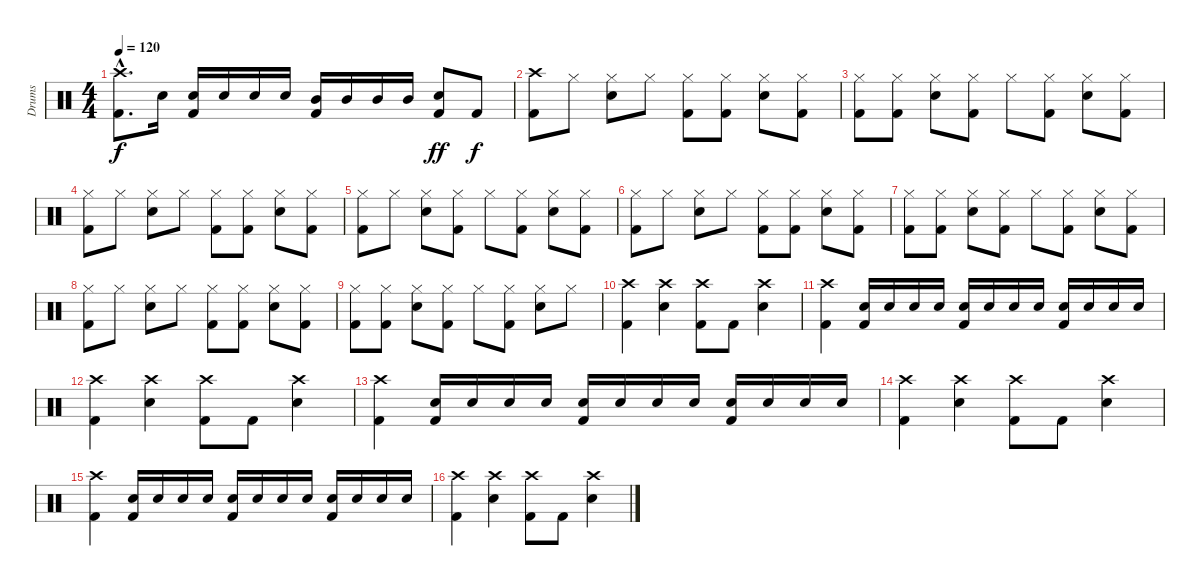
\track ("Drums" "Drums") {instrument percussion}
\staff {score}
\articulation defaults
\ts (4 4)
\tempo 120
\clef neutral
\ks c
("Crash high (hit)"{hac} "Kick (hit) 2"{hac}).8{d dy f} "Snare (hit) 2".16 ("Kick (hit) 2" "Snare (hit) 2").16 "Snare (hit) 2".16 "Snare (hit) 2".16 "Snare (hit) 2".16 ("Kick (hit) 2" "Mid Tom (hit)").16 "Mid Tom (hit)".16 "Mid Tom (hit)".16 "Mid Tom (hit)".16 ("Snare (hit) 2" "Kick (hit) 2").8{dy ff} "Kick (hit) 2".8{dy f} |
("Crash high (hit)" "Kick (hit) 2").8 "Hi-Hat (closed)".8 ("Hi-Hat (closed)" "Snare (hit) 2").8 "Hi-Hat (closed)".8 ("Hi-Hat (closed)" "Kick (hit) 2").8 ("Hi-Hat (closed)" "Kick (hit) 2").8 ("Hi-Hat (closed)" "Snare (hit) 2").8 ("Hi-Hat (closed)" "Kick (hit) 2").8 |
("Hi-Hat (closed)" "Kick (hit) 2").8 ("Hi-Hat (closed)" "Kick (hit) 2").8 ("Hi-Hat (closed)" "Snare (hit) 2").8 ("Hi-Hat (closed)" "Kick (hit) 2").8 "Hi-Hat (closed)".8 ("Hi-Hat (closed)" "Kick (hit) 2").8 ("Hi-Hat (closed)" "Snare (hit) 2").8 ("Hi-Hat (closed)" "Kick (hit) 2").8 |
("Hi-Hat (closed)" "Kick (hit) 2").8 "Hi-Hat (closed)".8 ("Hi-Hat (closed)" "Snare (hit) 2").8 "Hi-Hat (closed)".8 ("Hi-Hat (closed)" "Kick (hit) 2").8 ("Hi-Hat (closed)" "Kick (hit) 2").8 ("Hi-Hat (closed)" "Snare (hit) 2").8 ("Hi-Hat (closed)" "Kick (hit) 2").8 |
("Hi-Hat (closed)" "Kick (hit) 2").8 "Hi-Hat (closed)".8 ("Hi-Hat (closed)" "Snare (hit) 2").8 ("Hi-Hat (closed)" "Kick (hit) 2").8 "Hi-Hat (closed)".8 ("Hi-Hat (closed)" "Kick (hit) 2").8 ("Hi-Hat (closed)" "Snare (hit) 2").8 ("Hi-Hat (closed)" "Kick (hit) 2").8 |
("Hi-Hat (closed)" "Kick (hit) 2").8 "Hi-Hat (closed)".8 ("Hi-Hat (closed)" "Snare (hit) 2").8 "Hi-Hat (closed)".8 ("Hi-Hat (closed)" "Kick (hit) 2").8 ("Hi-Hat (closed)" "Kick (hit) 2").8 ("Hi-Hat (closed)" "Snare (hit) 2").8 ("Hi-Hat (closed)" "Kick (hit) 2").8 |
("Hi-Hat (closed)" "Kick (hit) 2").8 ("Hi-Hat (closed)" "Kick (hit) 2").8 ("Hi-Hat (closed)" "Snare (hit) 2").8 ("Hi-Hat (closed)" "Kick (hit) 2").8 "Hi-Hat (closed)".8 ("Hi-Hat (closed)" "Kick (hit) 2").8 ("Hi-Hat (closed)" "Snare (hit) 2").8 ("Hi-Hat (closed)" "Kick (hit) 2").8 |
("Hi-Hat (closed)" "Kick (hit) 2").8 "Hi-Hat (closed)".8 ("Hi-Hat (closed)" "Snare (hit) 2").8 "Hi-Hat (closed)".8 ("Hi-Hat (closed)" "Kick (hit) 2").8 ("Hi-Hat (closed)" "Kick (hit) 2").8 ("Hi-Hat (closed)" "Snare (hit) 2").8 ("Hi-Hat (closed)" "Kick (hit) 2").8 |
("Hi-Hat (closed)" "Kick (hit) 2").8 ("Hi-Hat (closed)" "Kick (hit) 2").8 ("Hi-Hat (closed)" "Snare (hit) 2").8 ("Hi-Hat (closed)" "Kick (hit) 2").8 "Hi-Hat (closed)".8 ("Hi-Hat (closed)" "Kick (hit) 2").8 ("Hi-Hat (closed)" "Snare (hit) 2").8 "Hi-Hat (closed)".8 |
("Crash high (hit)" "Kick (hit) 2").4 ("Crash high (hit)" "Snare (hit) 2").4 ("Crash high (hit)" "Kick (hit) 2").8 "Kick (hit) 2".8 ("Crash high (hit)" "Snare (hit) 2").4 |
("Crash high (hit)" "Kick (hit) 2").4 ("Kick (hit) 2" "Snare (hit) 2").16 "Snare (hit) 2".16 "Snare (hit) 2".16 "Snare (hit) 2".16 ("Kick (hit) 2" "Snare (hit) 2").16 "Snare (hit) 2".16 "Snare (hit) 2".16 "Snare (hit) 2".16 ("Kick (hit) 2" "Snare (hit) 2").16 "Snare (hit) 2".16 "Snare (hit) 2".16 "Snare (hit) 2".16 |
("Crash high (hit)" "Kick (hit) 2").4 ("Crash high (hit)" "Snare (hit) 2").4 ("Crash high (hit)" "Kick (hit) 2").8 "Kick (hit) 2".8 ("Crash high (hit)" "Snare (hit) 2").4 |
("Crash high (hit)" "Kick (hit) 2").4 ("Kick (hit) 2" "Snare (hit) 2").16 "Snare (hit) 2".16 "Snare (hit) 2".16 "Snare (hit) 2".16 ("Kick (hit) 2" "Snare (hit) 2").16 "Snare (hit) 2".16 "Snare (hit) 2".16 "Snare (hit) 2".16 ("Kick (hit) 2" "Snare (hit) 2").16 "Snare (hit) 2".16 "Snare (hit) 2".16 "Snare (hit) 2".16 |
("Crash high (hit)" "Kick (hit) 2").4 ("Crash high (hit)" "Snare (hit) 2").4 ("Crash high (hit)" "Kick (hit) 2").8 "Kick (hit) 2".8 ("Crash high (hit)" "Snare (hit) 2").4 |
("Crash high (hit)" "Kick (hit) 2").4 ("Kick (hit) 2" "Snare (hit) 2").16 "Snare (hit) 2".16 "Snare (hit) 2".16 "Snare (hit) 2".16 ("Kick (hit) 2" "Snare (hit) 2").16 "Snare (hit) 2".16 "Snare (hit) 2".16 "Snare (hit) 2".16 ("Kick (hit) 2" "Snare (hit) 2").16 "Snare (hit) 2".16 "Snare (hit) 2".16 "Snare (hit) 2".16 |
("Crash high (hit)" "Kick (hit) 2").4 ("Crash high (hit)" "Snare (hit) 2").4 ("Crash high (hit)" "Kick (hit) 2").8 "Kick (hit) 2".8 ("Crash high (hit)" "Snare (hit) 2").4
